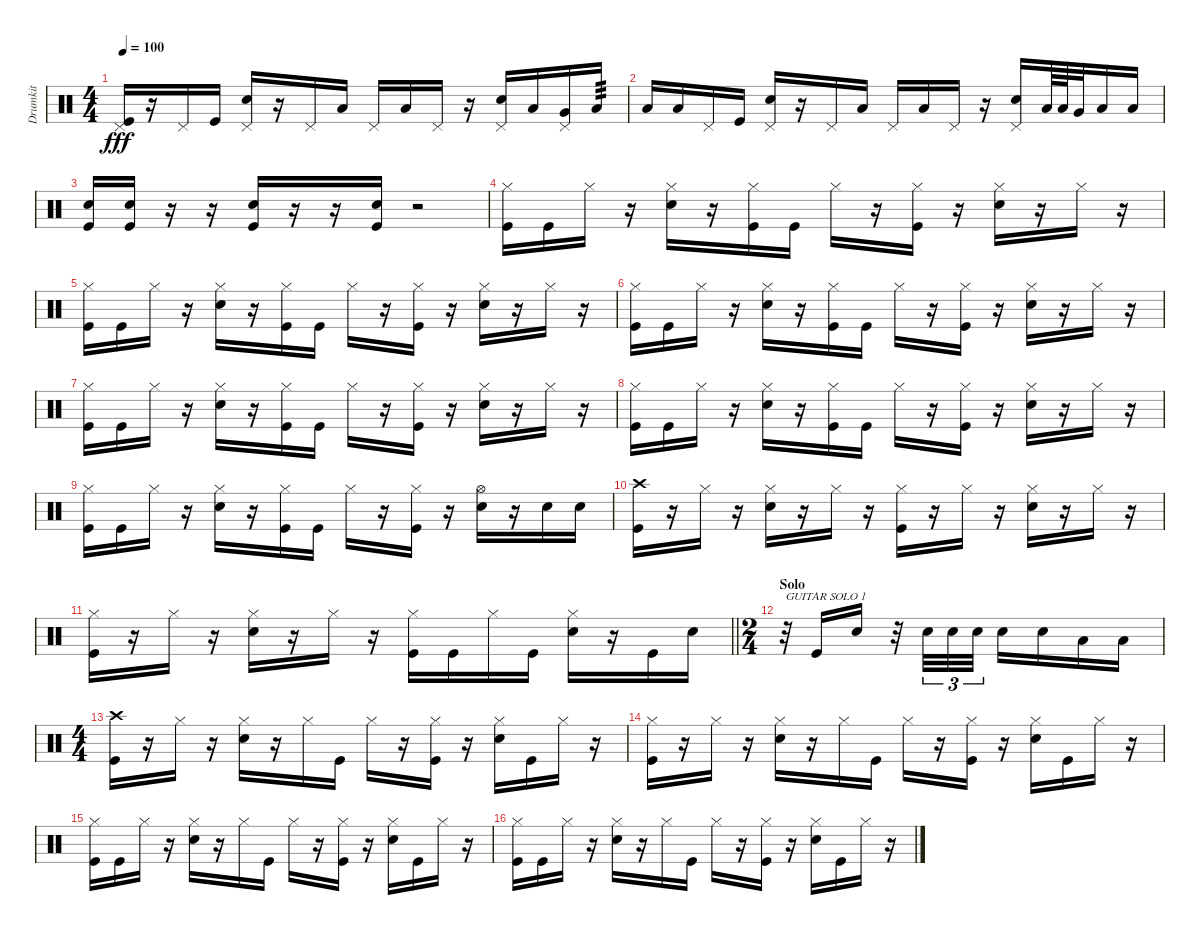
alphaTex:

\track ("Drumkit" "Drumkit") {instrument percussion}
\staff {score}
\articulation defaults
\ts (4 4)
\tempo 100
\clef neutral
\ks c
("Pedal Hi-Hat (hit)" "Kick (hit)").16{dy fff} r.16 "Pedal Hi-Hat (hit)".16 "Kick (hit)".16 ("Pedal Hi-Hat (hit)" "Snare (hit) 2").16 r.16 "Pedal Hi-Hat (hit)".16 "Low Tom (hit)".16 "Pedal Hi-Hat (hit)".16 "Low Floor Tom (hit)".16 "Pedal Hi-Hat (hit)".16 r.16 ("Pedal Hi-Hat (hit)" "Snare (hit) 2").16 "Low Tom (hit)".16 ("Pedal Hi-Hat (hit)" "Very Low Tom (hit)").16 "Low Floor Tom (hit)".16{tp 3} |
"Low Floor Tom (hit)".16 "Low Floor Tom (hit)".16 "Pedal Hi-Hat (hit)".16 "Kick (hit)".16 ("Pedal Hi-Hat (hit)" "Snare (hit) 2").16 r.16 "Pedal Hi-Hat (hit)".16 "Low Tom (hit)".16 "Pedal Hi-Hat (hit)".16 "Low Floor Tom (hit)".16 "Pedal Hi-Hat (hit)".16 r.16 ("Pedal Hi-Hat (hit)" "Snare (hit) 2").16 "Low Tom (hit)".64 "Low Tom (hit)".64 "Very Low Tom (hit)".32 "Low Tom (hit)".16 "Low Floor Tom (hit)".16 |
("Snare (hit) 2" "Kick (hit)").16 ("Snare (hit) 2" "Kick (hit)").16 r.16 r.16 ("Snare (hit) 2" "Kick (hit)").16 r.16 r.16 ("Snare (hit) 2" "Kick (hit)").16 r.2 |
("Hi-Hat (closed)" "Kick (hit)").16 "Kick (hit)".16 "Hi-Hat (closed)".16 r.16 ("Hi-Hat (closed)" "Snare (hit) 2").16 r.16 ("Hi-Hat (closed)" "Kick (hit)").16 "Kick (hit)".16 "Hi-Hat (closed)".16 r.16 ("Hi-Hat (closed)" "Kick (hit)").16 r.16 ("Hi-Hat (closed)" "Snare (hit) 2").16 r.16 "Hi-Hat (closed)".16 r.16 |
("Hi-Hat (closed)" "Kick (hit)").16 "Kick (hit)".16 "Hi-Hat (closed)".16 r.16 ("Hi-Hat (closed)" "Snare (hit) 2").16 r.16 ("Hi-Hat (closed)" "Kick (hit)").16 "Kick (hit)".16 "Hi-Hat (closed)".16 r.16 ("Hi-Hat (closed)" "Kick (hit)").16 r.16 ("Hi-Hat (closed)" "Snare (hit) 2").16 r.16 "Hi-Hat (closed)".16 r.16 |
("Hi-Hat (closed)" "Kick (hit)").16 "Kick (hit)".16 "Hi-Hat (closed)".16 r.16 ("Hi-Hat (closed)" "Snare (hit) 2").16 r.16 ("Hi-Hat (closed)" "Kick (hit)").16 "Kick (hit)".16 "Hi-Hat (closed)".16 r.16 ("Hi-Hat (closed)" "Kick (hit)").16 r.16 ("Hi-Hat (closed)" "Snare (hit) 2").16 r.16 "Hi-Hat (closed)".16 r.16 |
("Hi-Hat (closed)" "Kick (hit)").16 "Kick (hit)".16 "Hi-Hat (closed)".16 r.16 ("Hi-Hat (closed)" "Snare (hit) 2").16 r.16 ("Hi-Hat (closed)" "Kick (hit)").16 "Kick (hit)".16 "Hi-Hat (closed)".16 r.16 ("Hi-Hat (closed)" "Kick (hit)").16 r.16 ("Hi-Hat (closed)" "Snare (hit) 2").16 r.16 "Hi-Hat (closed)".16 r.16 |
("Hi-Hat (closed)" "Kick (hit)").16 "Kick (hit)".16 "Hi-Hat (closed)".16 r.16 ("Hi-Hat (closed)" "Snare (hit) 2").16 r.16 ("Hi-Hat (closed)" "Kick (hit)").16 "Kick (hit)".16 "Hi-Hat (closed)".16 r.16 ("Hi-Hat (closed)" "Kick (hit)").16 r.16 ("Hi-Hat (closed)" "Snare (hit) 2").16 r.16 "Hi-Hat (closed)".16 r.16 |
("Hi-Hat (closed)" "Kick (hit)").16 "Kick (hit)".16 "Hi-Hat (closed)".16 r.16 ("Hi-Hat (closed)" "Snare (hit) 2").16 r.16 ("Hi-Hat (closed)" "Kick (hit)").16 "Kick (hit)".16 "Hi-Hat (closed)".16 r.16 ("Hi-Hat (closed)" "Kick (hit)").16 r.16 ("Hi-Hat (open)" "Snare (hit) 2").16 r.16 "Snare (hit) 2".16 "Snare (hit) 2".16 |
("Crash high (hit)" "Kick (hit)").16 r.16 "Hi-Hat (closed)".16 r.16 ("Hi-Hat (closed)" "Snare (hit) 2").16 r.16 "Hi-Hat (closed)".16 r.16 ("Hi-Hat (closed)" "Kick (hit)").16 r.16 "Hi-Hat (closed)".16 r.16 ("Hi-Hat (closed)" "Snare (hit) 2").16 r.16 "Hi-Hat (closed)".16 r.16 |
\barLineRight lightlight
("Hi-Hat (closed)" "Kick (hit)").16 r.16 "Hi-Hat (closed)".16 r.16 ("Hi-Hat (closed)" "Snare (hit) 2").16 r.16 "Hi-Hat (closed)".16 r.16 ("Hi-Hat (closed)" "Kick (hit)").16 "Kick (hit)".16 "Hi-Hat (closed)".16 "Kick (hit)".16 ("Hi-Hat (closed)" "Snare (hit) 2").16 r.16 "Kick (hit)".16 "Snare (hit) 2".16 |
\ts (2 4)
\section ("" "Solo")
r.32{txt "GUITAR SOLO 1"} "Kick (hit)".16 "Snare (hit) 2".16 r.32 "Snare (hit) 2".32{tu (3 2)} "Snare (hit) 2".32{tu (3 2)} "Snare (hit) 2".32{tu (3 2)} "Snare (hit) 2".16 "Snare (hit) 2".16 "Low Tom (hit)".16 "Low Tom (hit)".16 |
\ts (4 4)
("Crash high (hit)" "Kick (hit)").16 r.16 "Hi-Hat (closed)".16 r.16 ("Hi-Hat (closed)" "Snare (hit) 2").16 r.16 "Hi-Hat (closed)".16 "Kick (hit)".16 "Hi-Hat (closed)".16 r.16 ("Hi-Hat (closed)" "Kick (hit)").16 r.16 ("Hi-Hat (closed)" "Snare (hit) 2").16 "Kick (hit)".16 "Hi-Hat (closed)".16 r.16 |
("Hi-Hat (closed)" "Kick (hit)").16 r.16 "Hi-Hat (closed)".16 r.16 ("Hi-Hat (closed)" "Snare (hit) 2").16 r.16 "Hi-Hat (closed)".16 "Kick (hit)".16 "Hi-Hat (closed)".16 r.16 ("Hi-Hat (closed)" "Kick (hit)").16 r.16 ("Hi-Hat (closed)" "Snare (hit) 2").16 "Kick (hit)".16 "Hi-Hat (closed)".16 r.16 |
("Hi-Hat (closed)" "Kick (hit)").16 "Kick (hit)".16 "Hi-Hat (closed)".16 r.16 ("Hi-Hat (closed)" "Snare (hit) 2").16 r.16 "Hi-Hat (closed)".16 "Kick (hit)".16 "Hi-Hat (closed)".16 r.16 ("Hi-Hat (closed)" "Kick (hit)").16 r.16 ("Hi-Hat (closed)" "Snare (hit) 2").16 "Kick (hit)".16 "Hi-Hat (closed)".16 r.16 |
("Hi-Hat (closed)" "Kick (hit)").16 "Kick (hit)".16 "Hi-Hat (closed)".16 r.16 ("Hi-Hat (closed)" "Snare (hit) 2").16 r.16 "Hi-Hat (closed)".16 "Kick (hit)".16 "Hi-Hat (closed)".16 r.16 ("Hi-Hat (closed)" "Kick (hit)").16 r.16 ("Hi-Hat (closed)" "Snare (hit) 2").16 "Kick (hit)".16 "Hi-Hat (closed)".16 r.16
